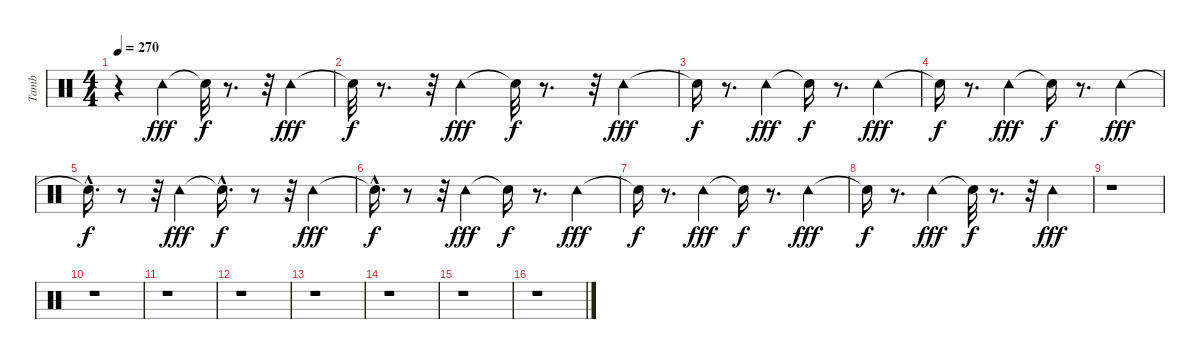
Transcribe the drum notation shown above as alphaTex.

\track ("Tamb" "Tamb") {instrument percussion}
\staff {score}
\articulation defaults
\ts (4 4)
\tempo 270
\clef neutral
\ks c
r.4{dy fff} "Tambourine (hit)".4 "Snare (hit)"{t}.32{dy f} r.8{d} r.32 "Tambourine (hit)".4{dy fff} |
"Snare (hit)"{t}.32{dy f} r.8{d} r.32 "Tambourine (hit)".4{dy fff} "Snare (hit)"{t}.32{dy f} r.8{d} r.32 "Tambourine (hit)".4{dy fff} |
"Snare (hit)"{t}.16{dy f} r.8{d} "Tambourine (hit)".4{dy fff} "Snare (hit)"{t}.16{dy f} r.8{d} "Tambourine (hit)".4{dy fff} |
"Snare (hit)"{t}.16{dy f} r.8{d} "Tambourine (hit)".4{dy fff} "Snare (hit)"{t}.16{dy f} r.8{d} "Tambourine (hit)".4{dy fff} |
"Snare (hit)"{hac t}.16{d dy f} r.8 r.32 "Tambourine (hit)".4{dy fff} "Snare (hit)"{hac t}.16{d dy f} r.8 r.32 "Tambourine (hit)".4{dy fff} |
"Snare (hit)"{hac t}.16{d dy f} r.8 r.32 "Tambourine (hit)".4{dy fff} "Snare (hit)"{t}.16{dy f} r.8{d} "Tambourine (hit)".4{dy fff} |
"Snare (hit)"{t}.16{dy f} r.8{d} "Tambourine (hit)".4{dy fff} "Snare (hit)"{t}.16{dy f} r.8{d} "Tambourine (hit)".4{dy fff} |
"Snare (hit)"{t}.16{dy f} r.8{d} "Tambourine (hit)".4{dy fff} "Snare (hit)"{t}.32{dy f} r.8{d} r.32 "Tambourine (hit)".4{dy fff} |
r.1 |
r.1 |
r.1 |
r.1 |
r.1 |
r.1 |
r.1 |
r.1
